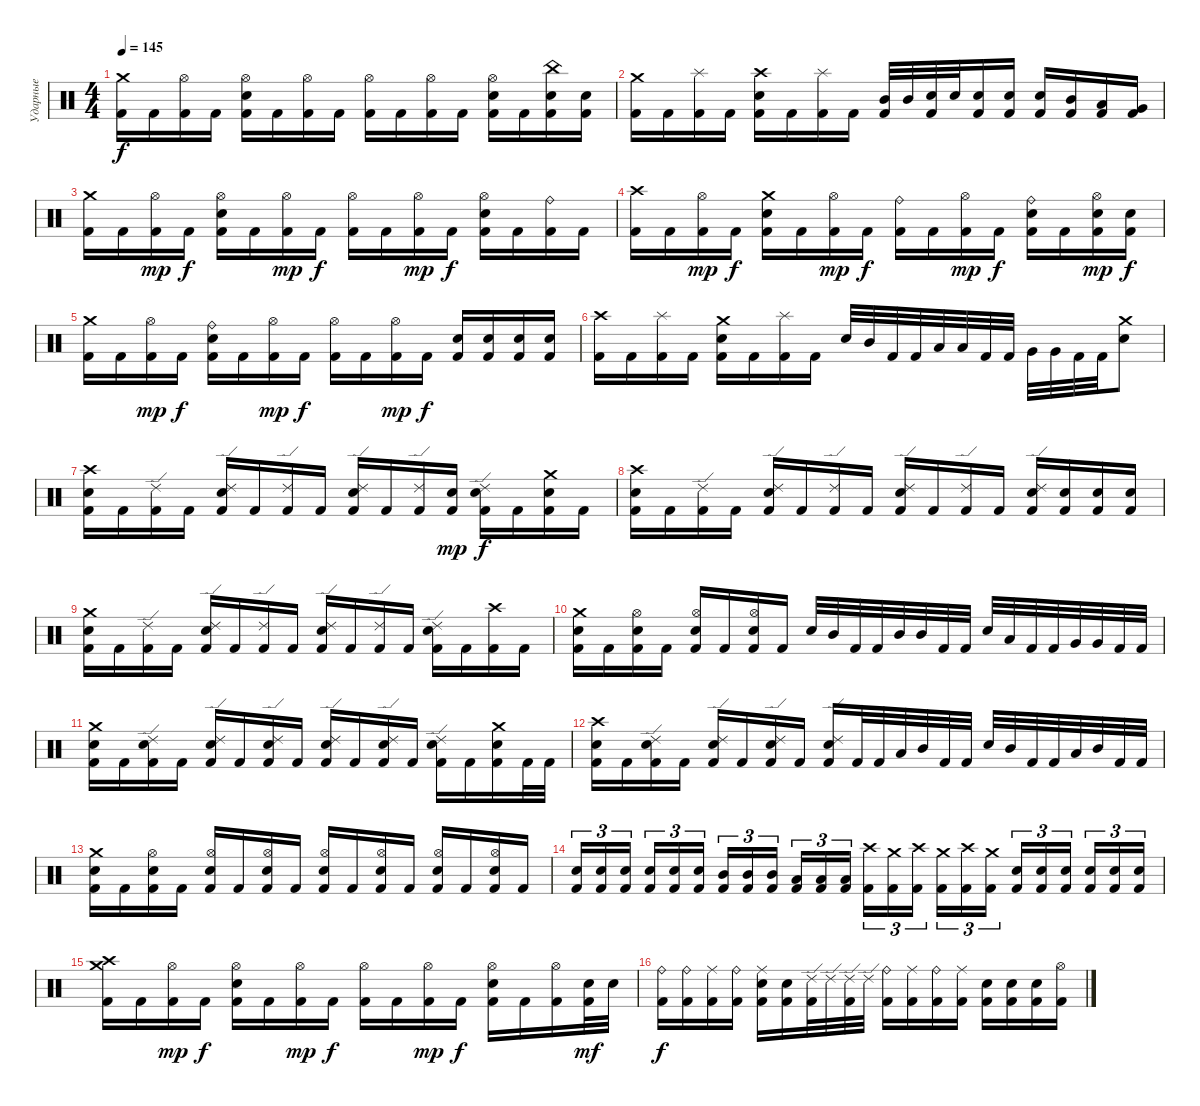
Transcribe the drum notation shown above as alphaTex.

\track ("Ударные" "Ударные") {instrument percussion}
\staff {score}
\articulation defaults
\ts (4 4)
\tempo 145
\clef neutral
\ks c
("Crash medium (hit)" "Kick (hit) 2").16{dy f} "Kick (hit) 2".16 ("Hi-Hat (open)" "Kick (hit) 2").16 "Kick (hit) 2".16 ("Hi-Hat (open)" "Electric Snare (hit)" "Kick (hit) 2").16 "Kick (hit) 2".16 ("Hi-Hat (open)" "Kick (hit) 2").16 "Kick (hit) 2".16 ("Hi-Hat (open)" "Kick (hit) 2").16 "Kick (hit) 2".16 ("Hi-Hat (open)" "Kick (hit) 2").16 "Kick (hit) 2".16 ("Hi-Hat (open)" "Electric Snare (hit)" "Kick (hit) 2").16 "Kick (hit) 2".16 ("China (hit)" "Electric Snare (hit)" "Kick (hit) 2").16 ("Electric Snare (hit)" "Kick (hit) 2").16 |
("Crash medium (hit)" "Kick (hit) 2").16 "Kick (hit) 2".16 ("Splash (hit)" "Kick (hit) 2").16 "Kick (hit) 2".16 ("Crash high (hit)" "Electric Snare (hit)" "Kick (hit) 2").16 "Kick (hit) 2".16 ("Splash (hit)" "Kick (hit) 2").16 "Kick (hit) 2".16 ("Mid Tom (hit)" "Kick (hit) 2").32 "Mid Tom (hit)".32 ("Electric Snare (hit)" "Kick (hit) 2").32 "Electric Snare (hit)".32 ("Electric Snare (hit)" "Kick (hit) 2").16 ("Electric Snare (hit)" "Kick (hit) 2").16 ("Electric Snare (hit)" "Kick (hit) 2").16 ("Mid Tom (hit)" "Kick (hit) 2").16 ("Low Tom (hit)" "Kick (hit) 2").16 ("Very Low Tom (hit)" "Kick (hit) 2").16 |
("Crash medium (hit)" "Kick (hit) 2").16 "Kick (hit) 2".16 ("Hi-Hat (open)" "Kick (hit) 2").16{dy mp} "Kick (hit) 2".16{dy f} ("Hi-Hat (open)" "Electric Snare (hit)" "Kick (hit) 2").16 "Kick (hit) 2".16 ("Hi-Hat (open)" "Kick (hit) 2").16{dy mp} "Kick (hit) 2".16{dy f} ("Hi-Hat (open)" "Kick (hit) 2").16 "Kick (hit) 2".16 ("Hi-Hat (open)" "Kick (hit) 2").16{dy mp} "Kick (hit) 2".16{dy f} ("Hi-Hat (open)" "Electric Snare (hit)" "Kick (hit) 2").16 "Kick (hit) 2".16 ("Ride (bell)" "Kick (hit) 2").16 "Kick (hit) 2".16 |
("Crash high (hit)" "Kick (hit) 2").16 "Kick (hit) 2".16 ("Hi-Hat (open)" "Kick (hit) 2").16{dy mp} "Kick (hit) 2".16{dy f} ("Crash medium (hit)" "Electric Snare (hit)" "Kick (hit) 2").16 "Kick (hit) 2".16 ("Hi-Hat (open)" "Kick (hit) 2").16{dy mp} "Kick (hit) 2".16{dy f} ("Ride (bell)" "Kick (hit) 2").16 "Kick (hit) 2".16 ("Hi-Hat (open)" "Kick (hit) 2").16{dy mp} "Kick (hit) 2".16{dy f} ("Ride (bell)" "Electric Snare (hit)" "Kick (hit) 2").16 "Kick (hit) 2".16 ("Hi-Hat (open)" "Electric Snare (hit)" "Kick (hit) 2").16{dy mp} ("Electric Snare (hit)" "Kick (hit) 2").16{dy f} |
("Crash medium (hit)" "Kick (hit) 2").16 "Kick (hit) 2".16 ("Hi-Hat (open)" "Kick (hit) 2").16{dy mp} "Kick (hit) 2".16{dy f} ("Ride (bell)" "Electric Snare (hit)" "Kick (hit) 2").16 "Kick (hit) 2".16 ("Hi-Hat (open)" "Kick (hit) 2").16{dy mp} "Kick (hit) 2".16{dy f} ("Hi-Hat (open)" "Kick (hit) 2").16 "Kick (hit) 2".16 ("Hi-Hat (open)" "Kick (hit) 2").16{dy mp} "Kick (hit) 2".16{dy f} ("Electric Snare (hit)" "Kick (hit) 2").16 ("Electric Snare (hit)" "Kick (hit) 2").16 ("Electric Snare (hit)" "Kick (hit) 2").16 ("Electric Snare (hit)" "Kick (hit) 2").16 |
("Crash high (hit)" "Kick (hit) 2").16 "Kick (hit) 2".16 ("Splash (hit)" "Kick (hit) 2").16 "Kick (hit) 2".16 ("Crash medium (hit)" "Electric Snare (hit)" "Kick (hit) 2").16 "Kick (hit) 2".16 ("Splash (hit)" "Kick (hit) 2").16 "Kick (hit) 2".16 "Electric Snare (hit)".32 "Mid Tom (hit)".32 "Kick (hit) 2".32 "Kick (hit) 2".32 "Low Tom (hit)".32 "Low Tom (hit)".32 "Kick (hit) 2".32 "Kick (hit) 2".32 "Very Low Tom (hit)".32 "Very Low Tom (hit)".32 "Kick (hit) 2".32 "Kick (hit) 2".32 ("Crash medium (hit)" "Electric Snare (hit)").8 |
("Crash high (hit)" "Electric Snare (hit)" "Kick (hit) 2").16 "Kick (hit) 2".16 ("Ride (edge) 2" "Kick (hit) 2").16 "Kick (hit) 2".16 ("Ride (edge) 2" "Electric Snare (hit)" "Kick (hit) 2").16 "Kick (hit) 2".16 ("Ride (edge) 2" "Kick (hit) 2").16 "Kick (hit) 2".16 ("Ride (edge) 2" "Electric Snare (hit)" "Kick (hit) 2").16 "Kick (hit) 2".16 ("Ride (edge) 2" "Kick (hit) 2").16 ("Electric Snare (hit)" "Kick (hit) 2").16{dy mp} ("Ride (edge) 2" "Electric Snare (hit)" "Kick (hit) 2").16{dy f} "Kick (hit) 2".16 ("Crash medium (hit)" "Electric Snare (hit)" "Kick (hit) 2").16 "Kick (hit) 2".16 |
("Crash high (hit)" "Electric Snare (hit)" "Kick (hit) 2").16 "Kick (hit) 2".16 ("Ride (edge) 2" "Kick (hit) 2").16 "Kick (hit) 2".16 ("Ride (edge) 2" "Electric Snare (hit)" "Kick (hit) 2").16 "Kick (hit) 2".16 ("Ride (edge) 2" "Kick (hit) 2").16 "Kick (hit) 2".16 ("Ride (edge) 2" "Electric Snare (hit)" "Kick (hit) 2").16 "Kick (hit) 2".16 ("Ride (edge) 2" "Kick (hit) 2").16 "Kick (hit) 2".16 ("Ride (edge) 2" "Electric Snare (hit)" "Kick (hit) 2").16 ("Electric Snare (hit)" "Kick (hit) 2").16 ("Electric Snare (hit)" "Kick (hit) 2").16 ("Electric Snare (hit)" "Kick (hit) 2").16 |
("Crash medium (hit)" "Electric Snare (hit)" "Kick (hit) 2").16 "Kick (hit) 2".16 ("Ride (edge) 2" "Kick (hit) 2").16 "Kick (hit) 2".16 ("Ride (edge) 2" "Electric Snare (hit)" "Kick (hit) 2").16 "Kick (hit) 2".16 ("Ride (edge) 2" "Kick (hit) 2").16 "Kick (hit) 2".16 ("Ride (edge) 2" "Electric Snare (hit)" "Kick (hit) 2").16 "Kick (hit) 2".16 ("Ride (edge) 2" "Kick (hit) 2").16 "Kick (hit) 2".16 ("Ride (edge) 2" "Electric Snare (hit)" "Kick (hit) 2").16 "Kick (hit) 2".16 ("Crash high (hit)" "Kick (hit) 2").16 "Kick (hit) 2".16 |
("Crash medium (hit)" "Electric Snare (hit)" "Kick (hit) 2").16 "Kick (hit) 2".16 ("Hi-Hat (open)" "Electric Snare (hit)" "Kick (hit) 2").16 "Kick (hit) 2".16 ("Hi-Hat (open)" "Electric Snare (hit)" "Kick (hit) 2").16 "Kick (hit) 2".16 ("Hi-Hat (open)" "Electric Snare (hit)" "Kick (hit) 2").16 "Kick (hit) 2".16 "Electric Snare (hit)".32 "Mid Tom (hit)".32 "Kick (hit) 2".32 "Kick (hit) 2".32 "Mid Tom (hit)".32 "Mid Tom (hit)".32 "Kick (hit) 2".32 "Kick (hit) 2".32 "Electric Snare (hit)".32 "Low Tom (hit)".32 "Kick (hit) 2".32 "Kick (hit) 2".32 "Very Low Tom (hit)".32 "Very Low Tom (hit)".32 "Kick (hit) 2".32 "Kick (hit) 2".32 |
("Crash medium (hit)" "Electric Snare (hit)" "Kick (hit) 2").16 "Kick (hit) 2".16 ("Ride (edge) 2" "Electric Snare (hit)" "Kick (hit) 2").16 "Kick (hit) 2".16 ("Ride (edge) 2" "Electric Snare (hit)" "Kick (hit) 2").16 "Kick (hit) 2".16 ("Ride (edge) 2" "Electric Snare (hit)" "Kick (hit) 2").16 "Kick (hit) 2".16 ("Ride (edge) 2" "Electric Snare (hit)" "Kick (hit) 2").16 "Kick (hit) 2".16 ("Ride (edge) 2" "Electric Snare (hit)" "Kick (hit) 2").16 "Kick (hit) 2".16 ("Ride (edge) 2" "Electric Snare (hit)" "Kick (hit) 2").16 "Kick (hit) 2".16 ("Crash medium (hit)" "Electric Snare (hit)" "Kick (hit) 2").16 "Kick (hit) 2".32 "Kick (hit) 2".32 |
("Crash high (hit)" "Electric Snare (hit)" "Kick (hit) 2").16 "Kick (hit) 2".16 ("Ride (edge) 2" "Electric Snare (hit)" "Kick (hit) 2").16 "Kick (hit) 2".16 ("Ride (edge) 2" "Electric Snare (hit)" "Kick (hit) 2").16 "Kick (hit) 2".16 ("Ride (edge) 2" "Electric Snare (hit)" "Kick (hit) 2").16 "Kick (hit) 2".16 ("Ride (edge) 2" "Electric Snare (hit)" "Kick (hit) 2").16 "Kick (hit) 2".32 "Kick (hit) 2".32 "Low Tom (hit)".32 "Mid Tom (hit)".32 "Kick (hit) 2".32 "Kick (hit) 2".32 "Electric Snare (hit)".32 "Mid Tom (hit)".32 "Kick (hit) 2".32 "Kick (hit) 2".32 "Low Tom (hit)".32 "Mid Tom (hit)".32 "Kick (hit) 2".32 "Kick (hit) 2".32 |
("Crash medium (hit)" "Electric Snare (hit)" "Kick (hit) 2").16 "Kick (hit) 2".16 ("Hi-Hat (open)" "Electric Snare (hit)" "Kick (hit) 2").16 "Kick (hit) 2".16 ("Hi-Hat (open)" "Electric Snare (hit)" "Kick (hit) 2").16 "Kick (hit) 2".16 ("Hi-Hat (open)" "Electric Snare (hit)" "Kick (hit) 2").16 "Kick (hit) 2".16 ("Hi-Hat (open)" "Electric Snare (hit)" "Kick (hit) 2").16 "Kick (hit) 2".16 ("Hi-Hat (open)" "Electric Snare (hit)" "Kick (hit) 2").16 "Kick (hit) 2".16 ("Hi-Hat (open)" "Electric Snare (hit)" "Kick (hit) 2").16 "Kick (hit) 2".16 ("Hi-Hat (open)" "Electric Snare (hit)" "Kick (hit) 2").16 "Kick (hit) 2".16 |
("Electric Snare (hit)" "Kick (hit) 2").16{tu (3 2)} ("Electric Snare (hit)" "Kick (hit) 2").16{tu (3 2)} ("Electric Snare (hit)" "Kick (hit) 2").16{tu (3 2) beam splitsecondary} ("Electric Snare (hit)" "Kick (hit) 2").16{tu (3 2)} ("Electric Snare (hit)" "Kick (hit) 2").16{tu (3 2)} ("Electric Snare (hit)" "Kick (hit) 2").16{tu (3 2)} ("Mid Tom (hit)" "Kick (hit) 2").16{tu (3 2)} ("Mid Tom (hit)" "Kick (hit) 2").16{tu (3 2)} ("Mid Tom (hit)" "Kick (hit) 2").16{tu (3 2) beam splitsecondary} ("Low Tom (hit)" "Kick (hit) 2").16{tu (3 2)} ("Low Tom (hit)" "Kick (hit) 2").16{tu (3 2)} ("Low Tom (hit)" "Kick (hit) 2").16{tu (3 2)} ("Crash high (hit)" "Kick (hit) 2").16{tu (3 2)} ("Crash medium (hit)" "Kick (hit) 2").16{tu (3 2)} ("Crash high (hit)" "Kick (hit) 2").16{tu (3 2) beam splitsecondary} ("Crash medium (hit)" "Kick (hit) 2").16{tu (3 2)} ("Crash high (hit)" "Kick (hit) 2").16{tu (3 2)} ("Crash medium (hit)" "Kick (hit) 2").16{tu (3 2)} ("Electric Snare (hit)" "Kick (hit) 2").16{tu (3 2)} ("Electric Snare (hit)" "Kick (hit) 2").16{tu (3 2)} ("Electric Snare (hit)" "Kick (hit) 2").16{tu (3 2) beam splitsecondary} ("Electric Snare (hit)" "Kick (hit) 2").16{tu (3 2)} ("Electric Snare (hit)" "Kick (hit) 2").16{tu (3 2)} ("Electric Snare (hit)" "Kick (hit) 2").16{tu (3 2)} |
("Crash medium (hit)" "Crash high (hit)" "Kick (hit) 2").16 "Kick (hit) 2".16 ("Hi-Hat (open)" "Kick (hit) 2").16{dy mp} "Kick (hit) 2".16{dy f} ("Hi-Hat (open)" "Electric Snare (hit)" "Kick (hit) 2").16 "Kick (hit) 2".16 ("Hi-Hat (open)" "Kick (hit) 2").16{dy mp} "Kick (hit) 2".16{dy f} ("Hi-Hat (open)" "Kick (hit) 2").16 "Kick (hit) 2".16 ("Hi-Hat (open)" "Kick (hit) 2").16{dy mp} "Kick (hit) 2".16{dy f} ("Hi-Hat (open)" "Electric Snare (hit)" "Kick (hit) 2").16 "Kick (hit) 2".16 ("Hi-Hat (open)" "Kick (hit) 2").16 ("Electric Snare (hit)" "Kick (hit) 2").32{dy mf} "Electric Snare (hit)".32 |
("Ride (bell)" "Kick (hit) 2").16{dy f} ("Ride (bell)" "Kick (hit) 2").16 ("Ride (middle)" "Kick (hit) 2").16 ("Ride (bell)" "Kick (hit) 2").16 ("Ride (middle)" "Electric Snare (hit)" "Kick (hit) 2").16 ("Electric Snare (hit)" "Kick (hit) 2").16 ("Ride (edge) 2" "Kick (hit) 2").32 "Ride (edge) 2".32 ("Ride (edge) 2" "Kick (hit) 2").32 "Ride (edge) 2".32 ("Ride (bell)" "Kick (hit) 2").16 ("Ride (middle)" "Kick (hit) 2").16 ("Ride (bell)" "Kick (hit) 2").16 ("Ride (middle)" "Kick (hit) 2").16 ("Electric Snare (hit)" "Kick (hit) 2").16 ("Electric Snare (hit)" "Kick (hit) 2").16 ("Electric Snare (hit)" "Kick (hit) 2").16 ("Hi-Hat (open)" "Kick (hit) 2").16
